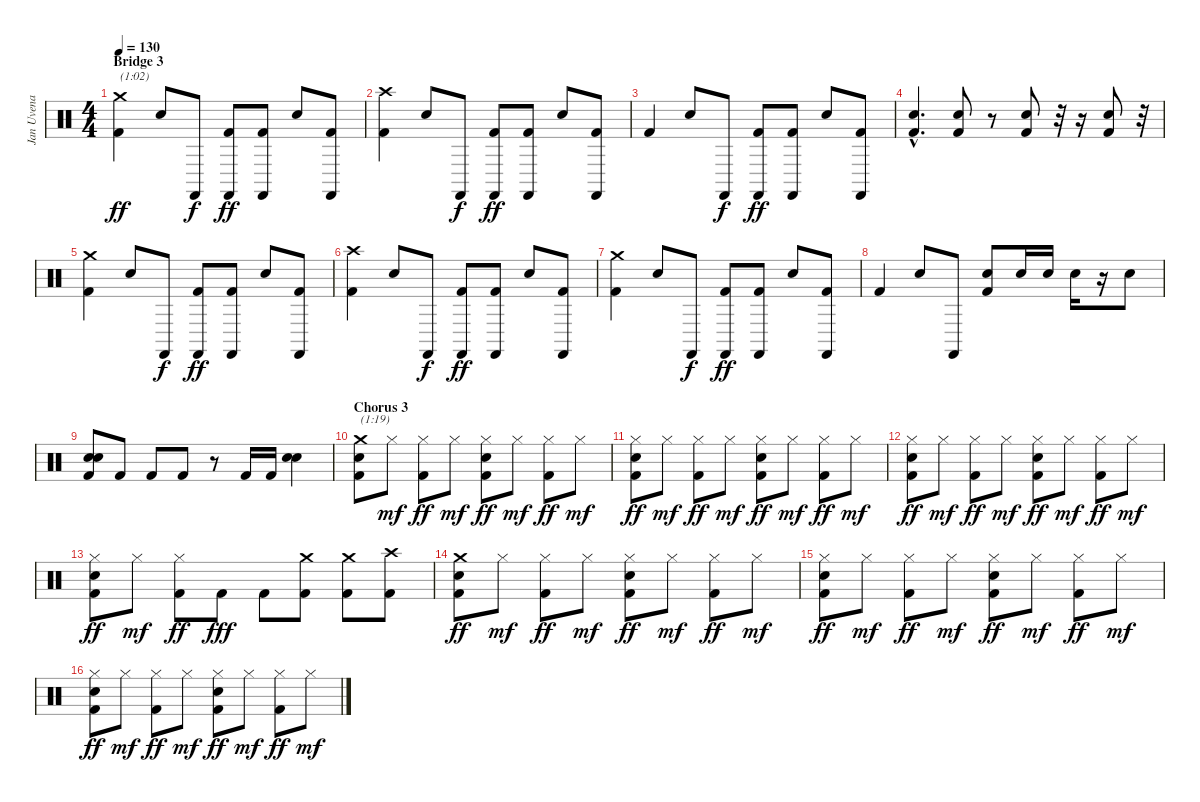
\track ("Jan Uvena" "Jan Uvena") {instrument percussion}
\staff {score}
\articulation defaults
\ts (4 4)
\section ("" "Bridge 3")
\tempo 130
\clef neutral
\ks c
("Crash medium (hit)" "Kick (hit) 2").4{txt "(1:02)" dy ff} "Snare (hit) 2".8 "Castanets (hit)".8{dy f} ("Castanets (hit)" "Kick (hit) 2").8{dy ff} ("Castanets (hit)" "Kick (hit) 2").8 "Snare (hit) 2".8 ("Castanets (hit)" "Kick (hit) 2").8 |
("Crash high (hit)" "Kick (hit) 2").4 "Snare (hit) 2".8 "Castanets (hit)".8{dy f} ("Castanets (hit)" "Kick (hit) 2").8{dy ff} ("Castanets (hit)" "Kick (hit) 2").8 "Snare (hit) 2".8 ("Castanets (hit)" "Kick (hit) 2").8 |
"Kick (hit) 2".4 "Snare (hit) 2".8 "Castanets (hit)".8{dy f} ("Castanets (hit)" "Kick (hit) 2").8{dy ff} ("Castanets (hit)" "Kick (hit) 2").8 "Snare (hit) 2".8 ("Castanets (hit)" "Kick (hit) 2").8 |
("Snare (hit) 2"{hac} "Kick (hit) 2"{hac}).4{d} ("Snare (hit) 2" "Kick (hit) 2").8 r.8 ("Snare (hit) 2" "Kick (hit) 2").8 r.32 r.16 ("Snare (hit) 2" "Kick (hit) 2").8 r.32 |
("Crash medium (hit)" "Kick (hit) 2").4 "Snare (hit) 2".8 "Castanets (hit)".8{dy f} ("Castanets (hit)" "Kick (hit) 2").8{dy ff} ("Castanets (hit)" "Kick (hit) 2").8 "Snare (hit) 2".8 ("Castanets (hit)" "Kick (hit) 2").8 |
("Crash high (hit)" "Kick (hit) 2").4 "Snare (hit) 2".8 "Castanets (hit)".8{dy f} ("Castanets (hit)" "Kick (hit) 2").8{dy ff} ("Castanets (hit)" "Kick (hit) 2").8 "Snare (hit) 2".8 ("Castanets (hit)" "Kick (hit) 2").8 |
("Crash medium (hit)" "Kick (hit) 2").4 "Snare (hit) 2".8 "Castanets (hit)".8{dy f} ("Castanets (hit)" "Kick (hit) 2").8{dy ff} ("Castanets (hit)" "Kick (hit) 2").8 "Snare (hit) 2".8 ("Castanets (hit)" "Kick (hit) 2").8 |
"Kick (hit) 2".4 "Snare (hit) 2".8 "Castanets (hit)".8 ("Snare (hit) 2" "Kick (hit) 2").8 "Snare (hit) 2".16 "Snare (hit) 2".16 "Snare (hit) 2".16 r.16 "Snare (hit) 2".8 |
("Electric Snare (hit)" "Snare (hit) 2" "Kick (hit) 2").8 "Kick (hit) 2".8 "Kick (hit) 2".8 "Kick (hit) 2".8 r.8 "Kick (hit) 2".16 "Kick (hit) 2".16 ("Electric Snare (hit)" "Snare (hit) 2").4 |
\section ("" "Chorus 3")
("Crash medium (hit)" "Snare (hit) 2" "Kick (hit) 2").8{txt "(1:19)"} "Hi-Hat (closed)".8{dy mf} ("Hi-Hat (closed)" "Kick (hit) 2").8{dy ff} "Hi-Hat (closed)".8{dy mf} ("Hi-Hat (closed)" "Snare (hit) 2" "Kick (hit) 2").8{dy ff} "Hi-Hat (closed)".8{dy mf} ("Hi-Hat (closed)" "Kick (hit) 2").8{dy ff} "Hi-Hat (closed)".8{dy mf} |
("Hi-Hat (closed)" "Snare (hit) 2" "Kick (hit) 2").8{dy ff} "Hi-Hat (closed)".8{dy mf} ("Hi-Hat (closed)" "Kick (hit) 2").8{dy ff} "Hi-Hat (closed)".8{dy mf} ("Hi-Hat (closed)" "Snare (hit) 2" "Kick (hit) 2").8{dy ff} "Hi-Hat (closed)".8{dy mf} ("Hi-Hat (closed)" "Kick (hit) 2").8{dy ff} "Hi-Hat (closed)".8{dy mf} |
("Hi-Hat (closed)" "Snare (hit) 2" "Kick (hit) 2").8{dy ff} "Hi-Hat (closed)".8{dy mf} ("Hi-Hat (closed)" "Kick (hit) 2").8{dy ff} "Hi-Hat (closed)".8{dy mf} ("Hi-Hat (closed)" "Snare (hit) 2" "Kick (hit) 2").8{dy ff} "Hi-Hat (closed)".8{dy mf} ("Hi-Hat (closed)" "Kick (hit) 2").8{dy ff} "Hi-Hat (closed)".8{dy mf} |
("Hi-Hat (closed)" "Snare (hit) 2" "Kick (hit) 2").8{dy ff} "Hi-Hat (closed)".8{dy mf} ("Hi-Hat (closed)" "Kick (hit) 2").8{dy ff} "Kick (hit) 2".8{dy fff} "Kick (hit) 2".8 ("Crash medium (hit)" "Kick (hit) 2").8 ("Crash medium (hit)" "Kick (hit) 2").8 ("Crash high (hit)" "Kick (hit) 2").8 |
("Crash medium (hit)" "Snare (hit) 2" "Kick (hit) 2").8{dy ff} "Hi-Hat (closed)".8{dy mf} ("Hi-Hat (closed)" "Kick (hit) 2").8{dy ff} "Hi-Hat (closed)".8{dy mf} ("Hi-Hat (closed)" "Snare (hit) 2" "Kick (hit) 2").8{dy ff} "Hi-Hat (closed)".8{dy mf} ("Hi-Hat (closed)" "Kick (hit) 2").8{dy ff} "Hi-Hat (closed)".8{dy mf} |
("Hi-Hat (closed)" "Snare (hit) 2" "Kick (hit) 2").8{dy ff} "Hi-Hat (closed)".8{dy mf} ("Hi-Hat (closed)" "Kick (hit) 2").8{dy ff} "Hi-Hat (closed)".8{dy mf} ("Hi-Hat (closed)" "Snare (hit) 2" "Kick (hit) 2").8{dy ff} "Hi-Hat (closed)".8{dy mf} ("Hi-Hat (closed)" "Kick (hit) 2").8{dy ff} "Hi-Hat (closed)".8{dy mf} |
("Hi-Hat (closed)" "Snare (hit) 2" "Kick (hit) 2").8{dy ff} "Hi-Hat (closed)".8{dy mf} ("Hi-Hat (closed)" "Kick (hit) 2").8{dy ff} "Hi-Hat (closed)".8{dy mf} ("Hi-Hat (closed)" "Snare (hit) 2" "Kick (hit) 2").8{dy ff} "Hi-Hat (closed)".8{dy mf} ("Hi-Hat (closed)" "Kick (hit) 2").8{dy ff} "Hi-Hat (closed)".8{dy mf}
